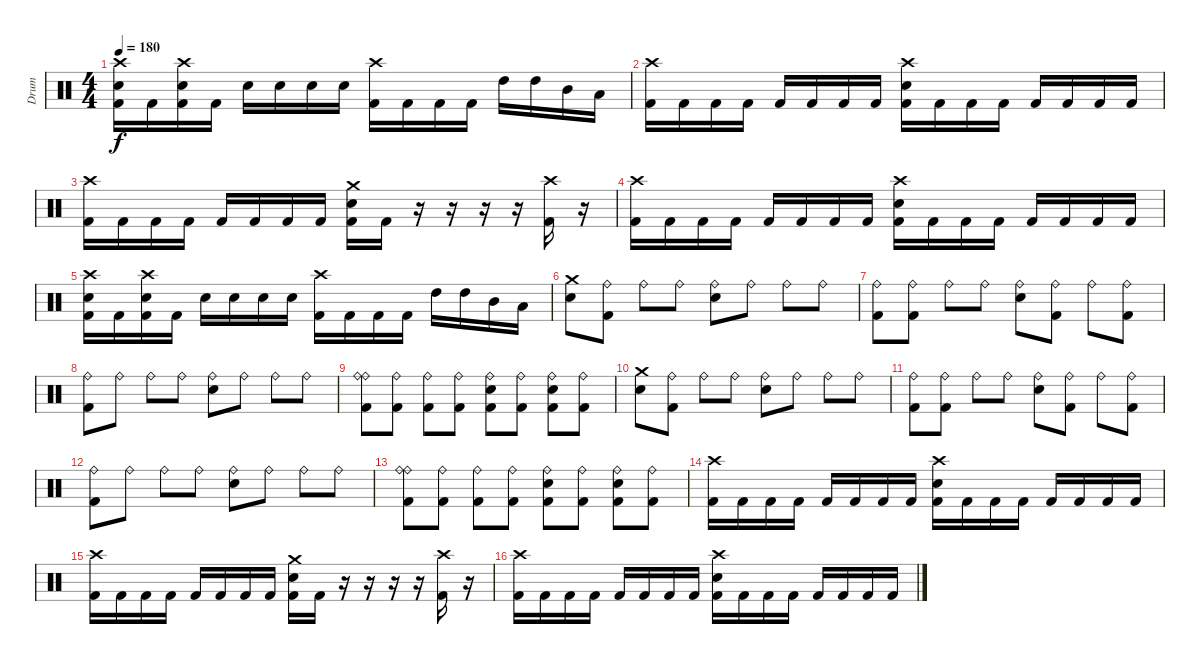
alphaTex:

\track ("Drum" "Drum") {instrument percussion}
\staff {score}
\articulation defaults
\ts (4 4)
\tempo 180
\clef neutral
\ks c
("Crash high (hit)" "Electric Snare (hit)" "Kick (hit) 2").16{dy f} "Kick (hit) 2".16 ("Crash high (hit)" "Electric Snare (hit)" "Kick (hit) 2").16 "Kick (hit) 2".16 "Electric Snare (hit)".16 "Electric Snare (hit)".16 "Electric Snare (hit)".16 "Electric Snare (hit)".16 ("Crash high (hit)" "Kick (hit) 2").16 "Kick (hit) 2".16 "Kick (hit) 2".16 "Kick (hit) 2".16 "High Tom (hit)".16 "High Tom (hit)".16 "Mid Tom (hit)".16 "Low Tom (hit)".16 |
("Crash high (hit)" "Kick (hit) 2").16 "Kick (hit) 2".16 "Kick (hit) 2".16 "Kick (hit) 2".16 "Kick (hit) 2".16 "Kick (hit) 2".16 "Kick (hit) 2".16 "Kick (hit) 2".16 ("Crash high (hit)" "Electric Snare (hit)" "Kick (hit) 2").16 "Kick (hit) 2".16 "Kick (hit) 2".16 "Kick (hit) 2".16 "Kick (hit) 2".16 "Kick (hit) 2".16 "Kick (hit) 2".16 "Kick (hit) 2".16 |
("Crash high (hit)" "Kick (hit) 2").16 "Kick (hit) 2".16 "Kick (hit) 2".16 "Kick (hit) 2".16 "Kick (hit) 2".16 "Kick (hit) 2".16 "Kick (hit) 2".16 "Kick (hit) 2".16 ("Crash medium (hit)" "Electric Snare (hit)" "Kick (hit) 2").16 "Kick (hit) 2".16 r.16 r.16 r.16 r.16 ("Crash high (hit)" "Kick (hit) 2").16 r.16 |
("Crash high (hit)" "Kick (hit) 2").16 "Kick (hit) 2".16 "Kick (hit) 2".16 "Kick (hit) 2".16 "Kick (hit) 2".16 "Kick (hit) 2".16 "Kick (hit) 2".16 "Kick (hit) 2".16 ("Crash high (hit)" "Electric Snare (hit)" "Kick (hit) 2").16 "Kick (hit) 2".16 "Kick (hit) 2".16 "Kick (hit) 2".16 "Kick (hit) 2".16 "Kick (hit) 2".16 "Kick (hit) 2".16 "Kick (hit) 2".16 |
("Crash high (hit)" "Electric Snare (hit)" "Kick (hit) 2").16 "Kick (hit) 2".16 ("Crash high (hit)" "Electric Snare (hit)" "Kick (hit) 2").16 "Kick (hit) 2".16 "Electric Snare (hit)".16 "Electric Snare (hit)".16 "Electric Snare (hit)".16 "Electric Snare (hit)".16 ("Crash high (hit)" "Kick (hit) 2").16 "Kick (hit) 2".16 "Kick (hit) 2".16 "Kick (hit) 2".16 "High Tom (hit)".16 "High Tom (hit)".16 "Mid Tom (hit)".16 "Low Tom (hit)".16 |
("Crash medium (hit)" "Electric Snare (hit)").8 ("Ride (bell)" "Kick (hit) 2").8 "Ride (bell)".8 "Ride (bell)".8 ("Ride (bell)" "Electric Snare (hit)").8 "Ride (bell)".8 "Ride (bell)".8 "Ride (bell)".8 |
("Ride (bell)" "Kick (hit) 2").8 ("Ride (bell)" "Kick (hit) 2").8 "Ride (bell)".8 "Ride (bell)".8 ("Ride (bell)" "Electric Snare (hit)").8 ("Ride (bell)" "Kick (hit) 2").8 "Ride (bell)".8 ("Ride (bell)" "Kick (hit) 2").8 |
("Ride (bell)" "Kick (hit) 2").8 "Ride (bell)".8 "Ride (bell)".8 "Ride (bell)".8 ("Ride (bell)" "Electric Snare (hit)").8 "Ride (bell)".8 "Ride (bell)".8 "Ride (bell)".8 |
("Ride (bell)" "Ride (bell)" "Kick (hit) 2").8 ("Ride (bell)" "Kick (hit) 2").8 ("Ride (bell)" "Kick (hit) 2").8 ("Ride (bell)" "Kick (hit) 2").8 ("Ride (bell)" "Electric Snare (hit)" "Kick (hit) 2").8 ("Ride (bell)" "Kick (hit) 2").8 ("Ride (bell)" "Electric Snare (hit)" "Kick (hit) 2").8 ("Ride (bell)" "Kick (hit) 2").8 |
("Crash medium (hit)" "Electric Snare (hit)").8 ("Ride (bell)" "Kick (hit) 2").8 "Ride (bell)".8 "Ride (bell)".8 ("Ride (bell)" "Electric Snare (hit)").8 "Ride (bell)".8 "Ride (bell)".8 "Ride (bell)".8 |
("Ride (bell)" "Kick (hit) 2").8 ("Ride (bell)" "Kick (hit) 2").8 "Ride (bell)".8 "Ride (bell)".8 ("Ride (bell)" "Electric Snare (hit)").8 ("Ride (bell)" "Kick (hit) 2").8 "Ride (bell)".8 ("Ride (bell)" "Kick (hit) 2").8 |
("Ride (bell)" "Kick (hit) 2").8 "Ride (bell)".8 "Ride (bell)".8 "Ride (bell)".8 ("Ride (bell)" "Electric Snare (hit)").8 "Ride (bell)".8 "Ride (bell)".8 "Ride (bell)".8 |
("Ride (bell)" "Ride (bell)" "Kick (hit) 2").8 ("Ride (bell)" "Kick (hit) 2").8 ("Ride (bell)" "Kick (hit) 2").8 ("Ride (bell)" "Kick (hit) 2").8 ("Ride (bell)" "Electric Snare (hit)" "Kick (hit) 2").8 ("Ride (bell)" "Kick (hit) 2").8 ("Ride (bell)" "Electric Snare (hit)" "Kick (hit) 2").8 ("Ride (bell)" "Kick (hit) 2").8 |
("Crash high (hit)" "Kick (hit) 2").16 "Kick (hit) 2".16 "Kick (hit) 2".16 "Kick (hit) 2".16 "Kick (hit) 2".16 "Kick (hit) 2".16 "Kick (hit) 2".16 "Kick (hit) 2".16 ("Crash high (hit)" "Electric Snare (hit)" "Kick (hit) 2").16 "Kick (hit) 2".16 "Kick (hit) 2".16 "Kick (hit) 2".16 "Kick (hit) 2".16 "Kick (hit) 2".16 "Kick (hit) 2".16 "Kick (hit) 2".16 |
("Crash high (hit)" "Kick (hit) 2").16 "Kick (hit) 2".16 "Kick (hit) 2".16 "Kick (hit) 2".16 "Kick (hit) 2".16 "Kick (hit) 2".16 "Kick (hit) 2".16 "Kick (hit) 2".16 ("Crash medium (hit)" "Electric Snare (hit)" "Kick (hit) 2").16 "Kick (hit) 2".16 r.16 r.16 r.16 r.16 ("Crash high (hit)" "Kick (hit) 2").16 r.16 |
("Crash high (hit)" "Kick (hit) 2").16 "Kick (hit) 2".16 "Kick (hit) 2".16 "Kick (hit) 2".16 "Kick (hit) 2".16 "Kick (hit) 2".16 "Kick (hit) 2".16 "Kick (hit) 2".16 ("Crash high (hit)" "Electric Snare (hit)" "Kick (hit) 2").16 "Kick (hit) 2".16 "Kick (hit) 2".16 "Kick (hit) 2".16 "Kick (hit) 2".16 "Kick (hit) 2".16 "Kick (hit) 2".16 "Kick (hit) 2".16
